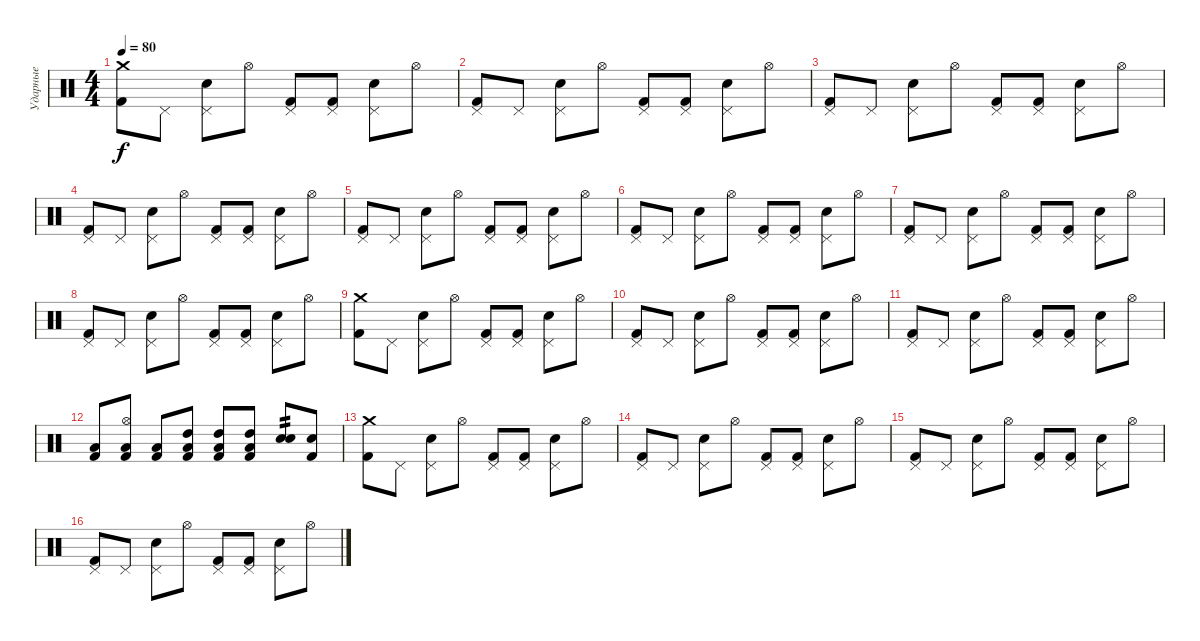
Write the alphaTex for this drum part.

\track ("Ударные" "Ударные") {instrument percussion}
\staff {score}
\articulation defaults
\ts (4 4)
\tempo 80
\clef neutral
\ks c
("Crash medium (hit)" "Kick (hit) 2").8{dy f} "Pedal Hi-Hat (hit)".8 ("Pedal Hi-Hat (hit)" "Electric Snare (hit)").8 "Hi-Hat (open)".8 ("Pedal Hi-Hat (hit)" "Kick (hit) 2").8 ("Pedal Hi-Hat (hit)" "Kick (hit) 2").8 ("Pedal Hi-Hat (hit)" "Electric Snare (hit)").8 "Hi-Hat (open)".8 |
("Pedal Hi-Hat (hit)" "Kick (hit) 2").8 "Pedal Hi-Hat (hit)".8 ("Pedal Hi-Hat (hit)" "Electric Snare (hit)").8 "Hi-Hat (open)".8 ("Pedal Hi-Hat (hit)" "Kick (hit) 2").8 ("Pedal Hi-Hat (hit)" "Kick (hit) 2").8 ("Pedal Hi-Hat (hit)" "Electric Snare (hit)").8 "Hi-Hat (open)".8 |
("Pedal Hi-Hat (hit)" "Kick (hit) 2").8 "Pedal Hi-Hat (hit)".8 ("Pedal Hi-Hat (hit)" "Electric Snare (hit)").8 "Hi-Hat (open)".8 ("Pedal Hi-Hat (hit)" "Kick (hit) 2").8 ("Pedal Hi-Hat (hit)" "Kick (hit) 2").8 ("Pedal Hi-Hat (hit)" "Electric Snare (hit)").8 "Hi-Hat (open)".8 |
("Pedal Hi-Hat (hit)" "Kick (hit) 2").8 "Pedal Hi-Hat (hit)".8 ("Pedal Hi-Hat (hit)" "Electric Snare (hit)").8 "Hi-Hat (open)".8 ("Pedal Hi-Hat (hit)" "Kick (hit) 2").8 ("Pedal Hi-Hat (hit)" "Kick (hit) 2").8 ("Pedal Hi-Hat (hit)" "Electric Snare (hit)").8 "Hi-Hat (open)".8 |
("Pedal Hi-Hat (hit)" "Kick (hit) 2").8 "Pedal Hi-Hat (hit)".8 ("Pedal Hi-Hat (hit)" "Electric Snare (hit)").8 "Hi-Hat (open)".8 ("Pedal Hi-Hat (hit)" "Kick (hit) 2").8 ("Pedal Hi-Hat (hit)" "Kick (hit) 2").8 ("Pedal Hi-Hat (hit)" "Electric Snare (hit)").8 "Hi-Hat (open)".8 |
("Pedal Hi-Hat (hit)" "Kick (hit) 2").8 "Pedal Hi-Hat (hit)".8 ("Pedal Hi-Hat (hit)" "Electric Snare (hit)").8 "Hi-Hat (open)".8 ("Pedal Hi-Hat (hit)" "Kick (hit) 2").8 ("Pedal Hi-Hat (hit)" "Kick (hit) 2").8 ("Pedal Hi-Hat (hit)" "Electric Snare (hit)").8 "Hi-Hat (open)".8 |
("Pedal Hi-Hat (hit)" "Kick (hit) 2").8 "Pedal Hi-Hat (hit)".8 ("Pedal Hi-Hat (hit)" "Electric Snare (hit)").8 "Hi-Hat (open)".8 ("Pedal Hi-Hat (hit)" "Kick (hit) 2").8 ("Pedal Hi-Hat (hit)" "Kick (hit) 2").8 ("Pedal Hi-Hat (hit)" "Electric Snare (hit)").8 "Hi-Hat (open)".8 |
("Pedal Hi-Hat (hit)" "Kick (hit) 2").8 "Pedal Hi-Hat (hit)".8 ("Pedal Hi-Hat (hit)" "Electric Snare (hit)").8 "Hi-Hat (open)".8 ("Pedal Hi-Hat (hit)" "Kick (hit) 2").8 ("Pedal Hi-Hat (hit)" "Kick (hit) 2").8 ("Pedal Hi-Hat (hit)" "Electric Snare (hit)").8 "Hi-Hat (open)".8 |
("Crash medium (hit)" "Kick (hit) 2").8 "Pedal Hi-Hat (hit)".8 ("Pedal Hi-Hat (hit)" "Electric Snare (hit)").8 "Hi-Hat (open)".8 ("Pedal Hi-Hat (hit)" "Kick (hit) 2").8 ("Pedal Hi-Hat (hit)" "Kick (hit) 2").8 ("Pedal Hi-Hat (hit)" "Electric Snare (hit)").8 "Hi-Hat (open)".8 |
("Pedal Hi-Hat (hit)" "Kick (hit) 2").8 "Pedal Hi-Hat (hit)".8 ("Pedal Hi-Hat (hit)" "Electric Snare (hit)").8 "Hi-Hat (open)".8 ("Pedal Hi-Hat (hit)" "Kick (hit) 2").8 ("Pedal Hi-Hat (hit)" "Kick (hit) 2").8 ("Pedal Hi-Hat (hit)" "Electric Snare (hit)").8 "Hi-Hat (open)".8 |
("Pedal Hi-Hat (hit)" "Kick (hit) 2").8 "Pedal Hi-Hat (hit)".8 ("Pedal Hi-Hat (hit)" "Electric Snare (hit)").8 "Hi-Hat (open)".8 ("Pedal Hi-Hat (hit)" "Kick (hit) 2").8 ("Pedal Hi-Hat (hit)" "Kick (hit) 2").8 ("Pedal Hi-Hat (hit)" "Electric Snare (hit)").8 "Hi-Hat (open)".8 |
("Low Tom (hit)" "Kick (hit) 2").8 ("Hi-Hat (open)" "Low Tom (hit)" "Kick (hit) 2").8 ("Low Tom (hit)" "Kick (hit) 2").8 ("Low Tom (hit)" "High Tom (hit)" "Kick (hit) 2").8 ("Low Tom (hit)" "High Tom (hit)" "Kick (hit) 2").8 ("Low Tom (hit)" "High Tom (hit)" "Kick (hit) 2").8 ("Electric Snare (hit)" "Electric Snare (hit)").8{tp 2} ("Electric Snare (hit)" "Kick (hit) 2").8 |
("Crash medium (hit)" "Kick (hit) 2").8 "Pedal Hi-Hat (hit)".8 ("Pedal Hi-Hat (hit)" "Electric Snare (hit)").8 "Hi-Hat (open)".8 ("Pedal Hi-Hat (hit)" "Kick (hit) 2").8 ("Pedal Hi-Hat (hit)" "Kick (hit) 2").8 ("Pedal Hi-Hat (hit)" "Electric Snare (hit)").8 "Hi-Hat (open)".8 |
("Pedal Hi-Hat (hit)" "Kick (hit) 2").8 "Pedal Hi-Hat (hit)".8 ("Pedal Hi-Hat (hit)" "Electric Snare (hit)").8 "Hi-Hat (open)".8 ("Pedal Hi-Hat (hit)" "Kick (hit) 2").8 ("Pedal Hi-Hat (hit)" "Kick (hit) 2").8 ("Pedal Hi-Hat (hit)" "Electric Snare (hit)").8 "Hi-Hat (open)".8 |
("Pedal Hi-Hat (hit)" "Kick (hit) 2").8 "Pedal Hi-Hat (hit)".8 ("Pedal Hi-Hat (hit)" "Electric Snare (hit)").8 "Hi-Hat (open)".8 ("Pedal Hi-Hat (hit)" "Kick (hit) 2").8 ("Pedal Hi-Hat (hit)" "Kick (hit) 2").8 ("Pedal Hi-Hat (hit)" "Electric Snare (hit)").8 "Hi-Hat (open)".8 |
("Pedal Hi-Hat (hit)" "Kick (hit) 2").8 "Pedal Hi-Hat (hit)".8 ("Pedal Hi-Hat (hit)" "Electric Snare (hit)").8 "Hi-Hat (open)".8 ("Pedal Hi-Hat (hit)" "Kick (hit) 2").8 ("Pedal Hi-Hat (hit)" "Kick (hit) 2").8 ("Pedal Hi-Hat (hit)" "Electric Snare (hit)").8 "Hi-Hat (open)".8
